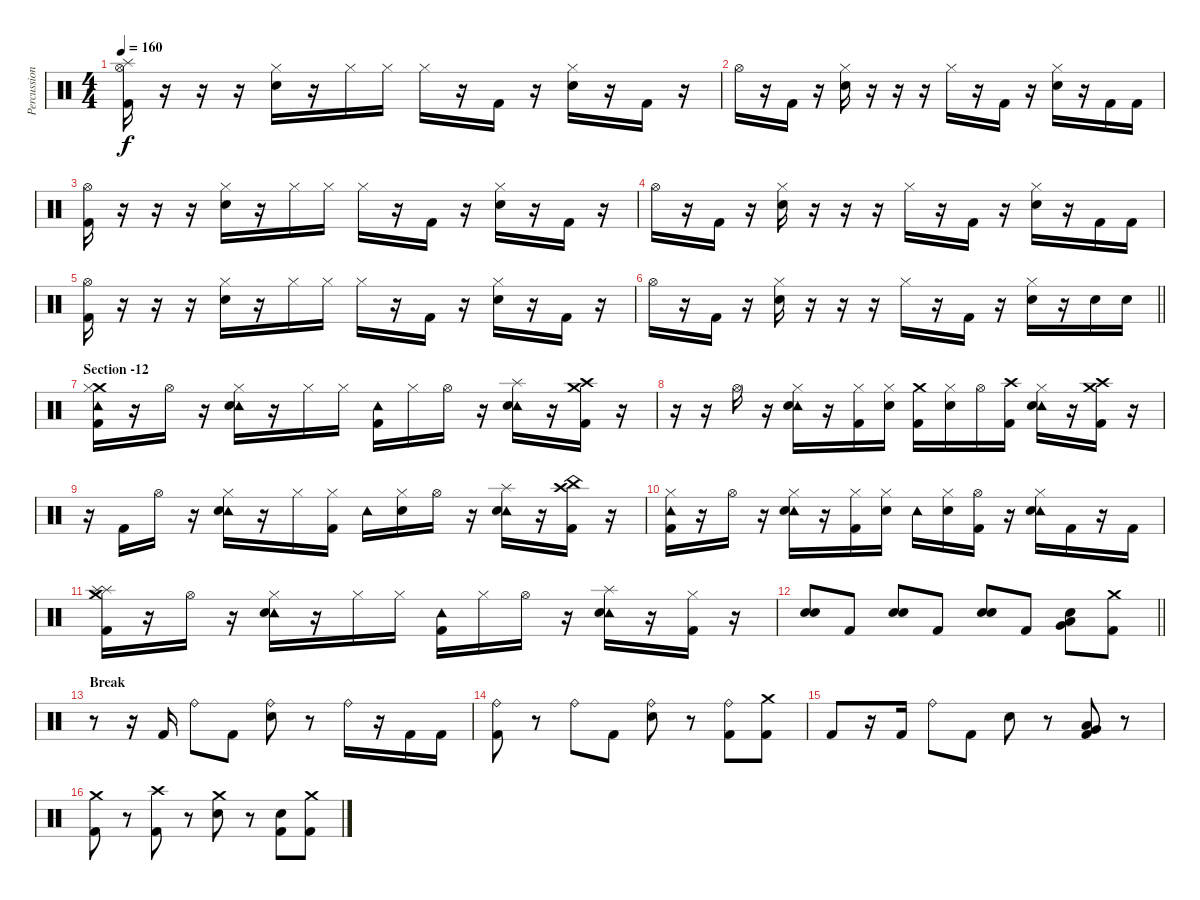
\track ("Percussion" "Percussion") {instrument percussion}
\staff {score}
\articulation defaults
\ts (4 4)
\tempo 160
\clef neutral
\ks c
("Splash (hit)" "Hi-Hat (open)" "Kick (hit) 2").16{dy f} r.16 r.16 r.16 ("Hi-Hat (closed)" "Electric Snare (hit)").16 r.16 "Hi-Hat (closed)".16 "Hi-Hat (closed)".16 "Hi-Hat (closed)".16 r.16 "Kick (hit) 2".16 r.16 ("Hi-Hat (closed)" "Electric Snare (hit)").16 r.16 "Kick (hit) 2".16 r.16 |
"Hi-Hat (open)".16 r.16 "Kick (hit) 2".16 r.16 ("Hi-Hat (closed)" "Electric Snare (hit)").16 r.16 r.16 r.16 "Hi-Hat (closed)".16 r.16 "Kick (hit) 2".16 r.16 ("Hi-Hat (closed)" "Electric Snare (hit)").16 r.16 "Kick (hit) 2".16 "Kick (hit) 2".16 |
("Hi-Hat (open)" "Kick (hit) 2").16 r.16 r.16 r.16 ("Hi-Hat (closed)" "Electric Snare (hit)").16 r.16 "Hi-Hat (closed)".16 "Hi-Hat (closed)".16 "Hi-Hat (closed)".16 r.16 "Kick (hit) 2".16 r.16 ("Hi-Hat (closed)" "Electric Snare (hit)").16 r.16 "Kick (hit) 2".16 r.16 |
"Hi-Hat (open)".16 r.16 "Kick (hit) 2".16 r.16 ("Hi-Hat (closed)" "Electric Snare (hit)").16 r.16 r.16 r.16 "Hi-Hat (closed)".16 r.16 "Kick (hit) 2".16 r.16 ("Hi-Hat (closed)" "Electric Snare (hit)").16 r.16 "Kick (hit) 2".16 "Kick (hit) 2".16 |
("Hi-Hat (open)" "Kick (hit) 2").16 r.16 r.16 r.16 ("Hi-Hat (closed)" "Electric Snare (hit)").16 r.16 "Hi-Hat (closed)".16 "Hi-Hat (closed)".16 "Hi-Hat (closed)".16 r.16 "Kick (hit) 2".16 r.16 ("Hi-Hat (closed)" "Electric Snare (hit)").16 r.16 "Kick (hit) 2".16 r.16 |
\barLineRight lightlight "Hi-Hat (open)".16
r.16 "Kick (hit) 2".16 r.16 ("Hi-Hat (closed)" "Electric Snare (hit)").16 r.16 r.16 r.16 "Hi-Hat (closed)".16 r.16 "Kick (hit) 2".16 r.16 ("Hi-Hat (closed)" "Electric Snare (hit)").16 r.16 "Electric Snare (hit)".16 "Electric Snare (hit)".16 |
\section ("" "Section -12")
("Crash medium (hit)" "Tambourine (hit)" "Hi-Hat (closed)" "Kick (hit) 2").16 r.16 "Hi-Hat (open)".16 r.16 ("Tambourine (hit)" "Hi-Hat (closed)" "Electric Snare (hit)").16 r.16 "Hi-Hat (closed)".16 "Hi-Hat (closed)".16 ("Tambourine (hit)" "Kick (hit) 2").16 "Hi-Hat (closed)".16 "Hi-Hat (open)".16 r.16 ("Tambourine (hit)" "Electric Snare (hit)" "Splash (hit)").16 r.16 ("Crash high (hit)" "Kick (hit) 2" "Crash medium (hit)").16 r.16 |
r.16 r.16 "Hi-Hat (open)".16 r.16 ("Tambourine (hit)" "Hi-Hat (closed)" "Electric Snare (hit)").16 r.16 ("Hi-Hat (closed)" "Kick (hit) 2").16 ("Electric Snare (hit)" "Hi-Hat (closed)").16 ("Crash medium (hit)" "Kick (hit) 2").16 ("Hi-Hat (closed)" "Electric Snare (hit)").16 "Hi-Hat (open)".16 ("Crash high (hit)" "Kick (hit) 2").16 ("Tambourine (hit)" "Hi-Hat (closed)" "Electric Snare (hit)").16 r.16 ("Crash high (hit)" "Crash medium (hit)" "Kick (hit) 2").16 r.16 |
r.16 "Kick (hit) 2".16 "Hi-Hat (open)".16 r.16 ("Tambourine (hit)" "Hi-Hat (closed)" "Electric Snare (hit)").16 r.16 "Hi-Hat (closed)".16 ("Hi-Hat (closed)" "Kick (hit) 2").16 "Tambourine (hit)".16 ("Hi-Hat (closed)" "Electric Snare (hit)").16 "Hi-Hat (open)".16 r.16 ("Tambourine (hit)" "Electric Snare (hit)" "Splash (hit)").16 r.16 ("China (hit)" "Crash high (hit)" "Kick (hit) 2").16 r.16 |
("Tambourine (hit)" "Hi-Hat (closed)" "Kick (hit) 2").16 r.16 "Hi-Hat (open)".16 r.16 ("Tambourine (hit)" "Hi-Hat (closed)" "Electric Snare (hit)").16 r.16 ("Hi-Hat (closed)" "Kick (hit) 2").16 ("Electric Snare (hit)" "Hi-Hat (closed)").16 "Tambourine (hit)".16 ("Hi-Hat (closed)" "Electric Snare (hit)").16 ("Hi-Hat (open)" "Kick (hit) 2").16 r.16 ("Tambourine (hit)" "Hi-Hat (closed)" "Electric Snare (hit)").16 "Kick (hit) 2".16 r.16 "Kick (hit) 2".16 |
("Splash (hit)" "Splash (hit)" "Crash medium (hit)" "Kick (hit) 2").16 r.16 "Hi-Hat (open)".16 r.16 ("Tambourine (hit)" "Hi-Hat (closed)" "Electric Snare (hit)").16 r.16 "Hi-Hat (closed)".16 "Hi-Hat (closed)".16 ("Tambourine (hit)" "Kick (hit) 2").16 "Hi-Hat (closed)".16 "Hi-Hat (open)".16 r.16 ("Tambourine (hit)" "Electric Snare (hit)" "Splash (hit)").16 r.16 ("Hi-Hat (closed)" "Kick (hit) 2").16 r.16 |
\barLineRight lightlight
("Electric Snare (hit)" "Electric Snare (hit)").8{bd 60} "Kick (hit) 2".8 ("Electric Snare (hit)" "Electric Snare (hit)").8{bd 60} "Kick (hit) 2".8 ("Electric Snare (hit)" "Electric Snare (hit)").8{bd 60} "Kick (hit) 2".8 ("Electric Snare (hit)" "Low Tom (hit)" "Very Low Tom (hit)").8{bd 60} ("Kick (hit) 2" "Crash medium (hit)").8 |
\section ("" "Break")
r.8 r.16 "Kick (hit) 2".16 "Ride (bell)".8 "Kick (hit) 2".8 ("Ride (bell)" "Electric Snare (hit)").8 r.8 "Ride (bell)".16 r.16 "Kick (hit) 2".16 "Kick (hit) 2".16 |
("Ride (bell)" "Kick (hit) 2").8 r.8 "Ride (bell)".8 "Kick (hit) 2".8 ("Ride (bell)" "Electric Snare (hit)").8 r.8 ("Ride (bell)" "Kick (hit) 2").8 ("Crash medium (hit)" "Kick (hit) 2").8 |
"Kick (hit) 2".8 r.16 "Kick (hit) 2".16 "Ride (bell)".8 "Kick (hit) 2".8 "Electric Snare (hit)".8 r.8 ("Low Tom (hit)" "Kick (hit) 2" "Very Low Tom (hit)").8{bd 60} r.8 |
("Crash medium (hit)" "Kick (hit) 2").8 r.8 ("Crash high (hit)" "Kick (hit) 2").8 r.8 ("Crash medium (hit)" "Electric Snare (hit)").8 r.8 ("Electric Snare (hit)" "Kick (hit) 2").8 ("Crash medium (hit)" "Kick (hit) 2").8
